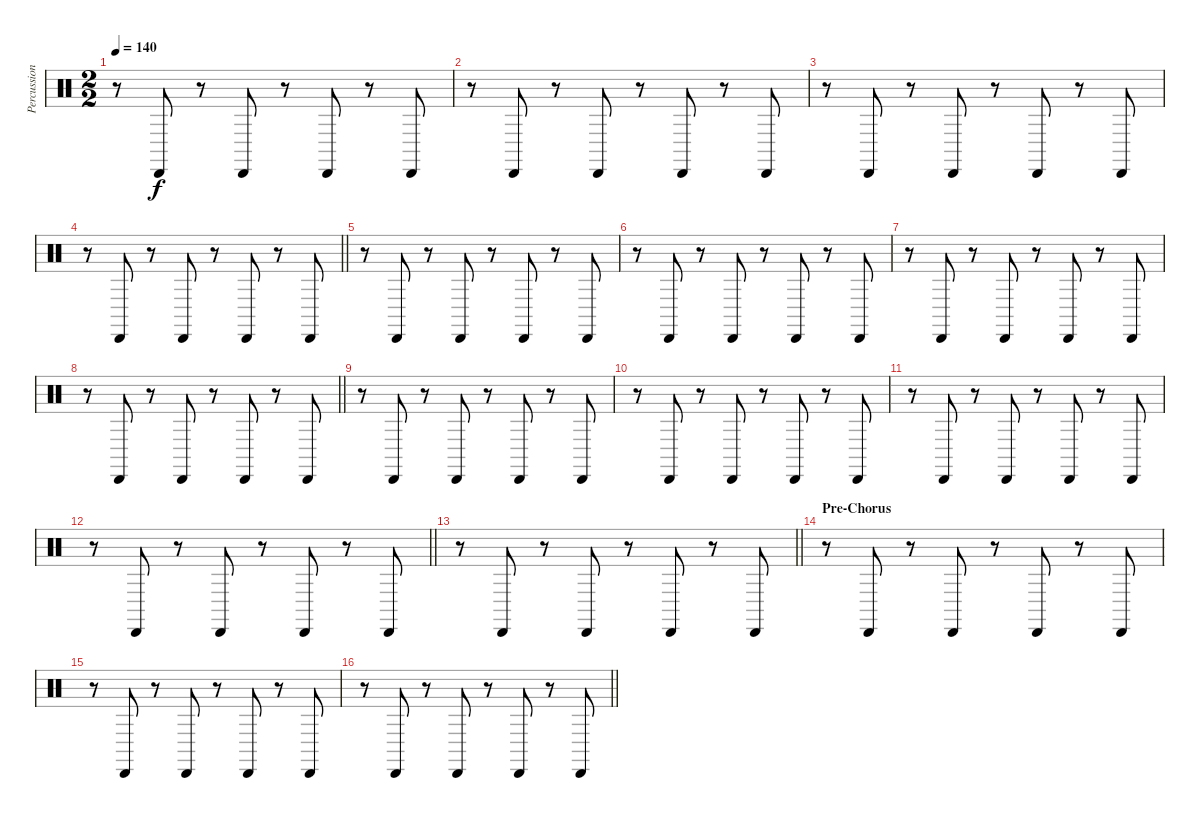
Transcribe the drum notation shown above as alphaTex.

\track ("Percussion 2" "Percussion") {instrument percussion}
\staff {score}
\articulation defaults
\ts (2 2)
\tempo 140
\clef neutral
\ks c
r.8{dy f} "Cabasa (hit)".8 r.8 "Cabasa (hit)".8 r.8 "Cabasa (hit)".8 r.8 "Cabasa (hit)".8 |
r.8 "Cabasa (hit)".8 r.8 "Cabasa (hit)".8 r.8 "Cabasa (hit)".8 r.8 "Cabasa (hit)".8 |
r.8 "Cabasa (hit)".8 r.8 "Cabasa (hit)".8 r.8 "Cabasa (hit)".8 r.8 "Cabasa (hit)".8 |
\barLineRight lightlight
r.8 "Cabasa (hit)".8 r.8 "Cabasa (hit)".8 r.8 "Cabasa (hit)".8 r.8 "Cabasa (hit)".8 |
r.8 "Cabasa (hit)".8 r.8 "Cabasa (hit)".8 r.8 "Cabasa (hit)".8 r.8 "Cabasa (hit)".8 |
r.8 "Cabasa (hit)".8 r.8 "Cabasa (hit)".8 r.8 "Cabasa (hit)".8 r.8 "Cabasa (hit)".8 |
r.8 "Cabasa (hit)".8 r.8 "Cabasa (hit)".8 r.8 "Cabasa (hit)".8 r.8 "Cabasa (hit)".8 |
\barLineRight lightlight
r.8 "Cabasa (hit)".8 r.8 "Cabasa (hit)".8 r.8 "Cabasa (hit)".8 r.8 "Cabasa (hit)".8 |
r.8 "Cabasa (hit)".8 r.8 "Cabasa (hit)".8 r.8 "Cabasa (hit)".8 r.8 "Cabasa (hit)".8 |
r.8 "Cabasa (hit)".8 r.8 "Cabasa (hit)".8 r.8 "Cabasa (hit)".8 r.8 "Cabasa (hit)".8 |
r.8 "Cabasa (hit)".8 r.8 "Cabasa (hit)".8 r.8 "Cabasa (hit)".8 r.8 "Cabasa (hit)".8 |
\barLineRight lightlight
r.8 "Cabasa (hit)".8 r.8 "Cabasa (hit)".8 r.8 "Cabasa (hit)".8 r.8 "Cabasa (hit)".8 |
\barLineRight lightlight
r.8 "Cabasa (hit)".8 r.8 "Cabasa (hit)".8 r.8 "Cabasa (hit)".8 r.8 "Cabasa (hit)".8 |
\section ("" "Pre-Chorus")
r.8 "Cabasa (hit)".8 r.8 "Cabasa (hit)".8 r.8 "Cabasa (hit)".8 r.8 "Cabasa (hit)".8 |
r.8 "Cabasa (hit)".8 r.8 "Cabasa (hit)".8 r.8 "Cabasa (hit)".8 r.8 "Cabasa (hit)".8 |
\barLineRight lightlight
r.8 "Cabasa (hit)".8 r.8 "Cabasa (hit)".8 r.8 "Cabasa (hit)".8 r.8 "Cabasa (hit)".8
